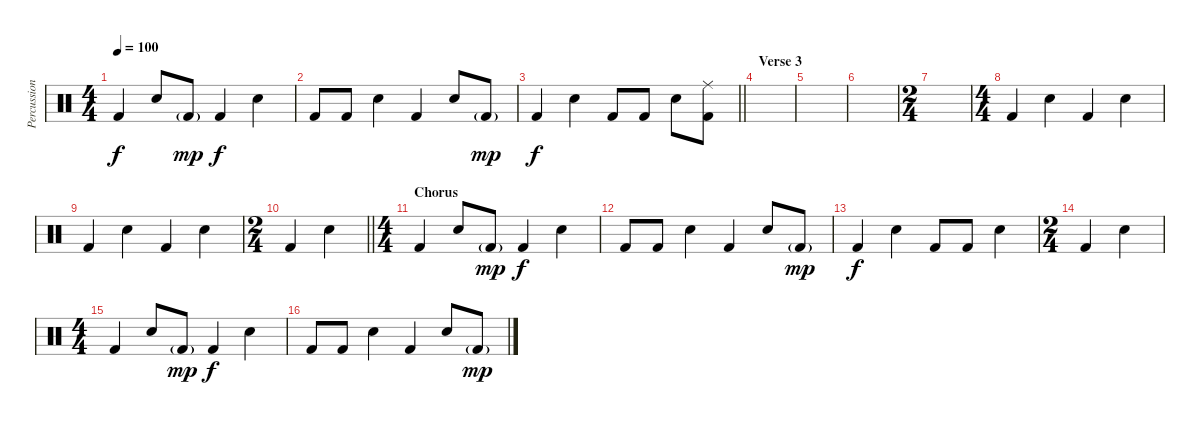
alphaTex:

\track ("Percussion" "Percussion") {instrument percussion}
\staff {score}
\articulation defaults
\ts (4 4)
\tempo 100
\clef neutral
\ks c "Kick (hit) 2".4{dy f} "Snare (hit) 2".8 "Kick (hit) 2"{g}.8{dy mp} "Kick (hit) 2".4{dy f} "Snare (hit) 2".4
|
"Kick (hit) 2".8 "Kick (hit) 2".8 "Snare (hit) 2".4 "Kick (hit) 2".4 "Snare (hit) 2".8 "Kick (hit) 2"{g}.8{dy mp} |
\barLineRight lightlight "Kick (hit) 2".4{dy f} "Snare (hit) 2".4 "Kick (hit) 2".8 "Kick (hit) 2".8 "Snare (hit) 2".8
("Ride (middle)" "Kick (hit) 2").8 |
\section ("" "Verse 3")
|
|
|
\ts (2 4)
|
\ts (4 4)
"Kick (hit) 2".4 "Snare (hit) 2".4 "Kick (hit) 2".4 "Snare (hit) 2".4 |
"Kick (hit) 2".4 "Snare (hit) 2".4 "Kick (hit) 2".4 "Snare (hit) 2".4 |
\ts (2 4)
\barLineRight lightlight "Kick (hit) 2".4 "Snare (hit) 2".4
|
\ts (4 4)
\section ("" "Chorus")
"Kick (hit) 2".4 "Snare (hit) 2".8 "Kick (hit) 2"{g}.8{dy mp} "Kick (hit) 2".4{dy f} "Snare (hit) 2".4 |
"Kick (hit) 2".8 "Kick (hit) 2".8 "Snare (hit) 2".4 "Kick (hit) 2".4 "Snare (hit) 2".8 "Kick (hit) 2"{g}.8{dy mp} |
"Kick (hit) 2".4{dy f} "Snare (hit) 2".4 "Kick (hit) 2".8 "Kick (hit) 2".8 "Snare (hit) 2".4 |
\ts (2 4)
"Kick (hit) 2".4 "Snare (hit) 2".4 |
\ts (4 4)
"Kick (hit) 2".4 "Snare (hit) 2".8 "Kick (hit) 2"{g}.8{dy mp} "Kick (hit) 2".4{dy f} "Snare (hit) 2".4 |
"Kick (hit) 2".8 "Kick (hit) 2".8 "Snare (hit) 2".4 "Kick (hit) 2".4 "Snare (hit) 2".8 "Kick (hit) 2"{g}.8{dy mp}
